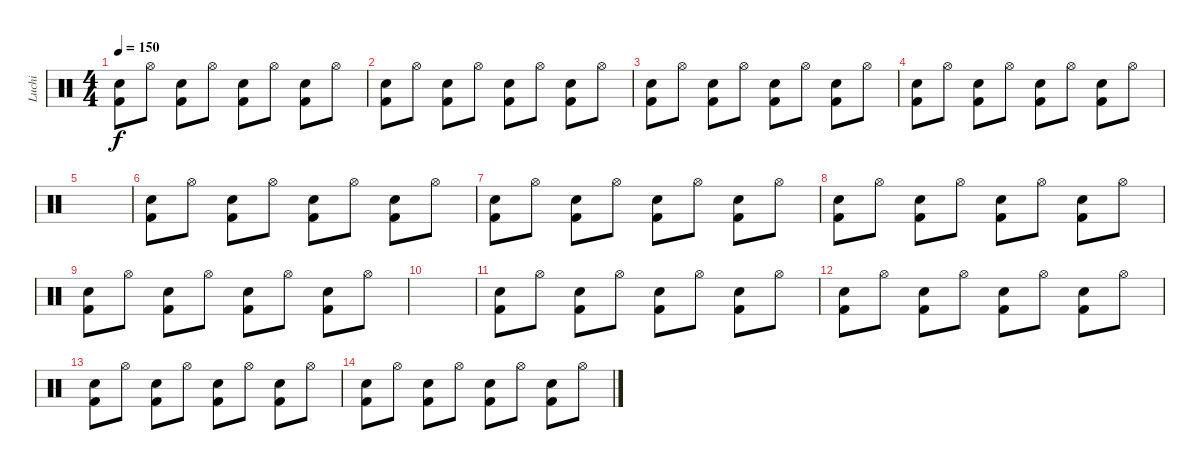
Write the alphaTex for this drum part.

\track ("Luchi" "Luchi") {instrument percussion}
\staff {score}
\articulation defaults
\ts (4 4)
\tempo 150
\clef neutral
\ks c
("Snare (hit) 2" "Kick (hit) 2").8{dy f} "Hi-Hat (open)".8 ("Snare (hit) 2" "Kick (hit) 2").8 "Hi-Hat (open)".8 ("Snare (hit) 2" "Kick (hit) 2").8 "Hi-Hat (open)".8 ("Snare (hit) 2" "Kick (hit) 2").8 "Hi-Hat (open)".8 |
("Snare (hit) 2" "Kick (hit) 2").8 "Hi-Hat (open)".8 ("Snare (hit) 2" "Kick (hit) 2").8 "Hi-Hat (open)".8 ("Snare (hit) 2" "Kick (hit) 2").8 "Hi-Hat (open)".8 ("Snare (hit) 2" "Kick (hit) 2").8 "Hi-Hat (open)".8 |
("Snare (hit) 2" "Kick (hit) 2").8 "Hi-Hat (open)".8 ("Snare (hit) 2" "Kick (hit) 2").8 "Hi-Hat (open)".8 ("Snare (hit) 2" "Kick (hit) 2").8 "Hi-Hat (open)".8 ("Snare (hit) 2" "Kick (hit) 2").8 "Hi-Hat (open)".8 |
("Snare (hit) 2" "Kick (hit) 2").8 "Hi-Hat (open)".8 ("Snare (hit) 2" "Kick (hit) 2").8 "Hi-Hat (open)".8 ("Snare (hit) 2" "Kick (hit) 2").8 "Hi-Hat (open)".8 ("Snare (hit) 2" "Kick (hit) 2").8 "Hi-Hat (open)".8 |
|
("Snare (hit) 2" "Kick (hit) 2").8 "Hi-Hat (open)".8 ("Snare (hit) 2" "Kick (hit) 2").8 "Hi-Hat (open)".8 ("Snare (hit) 2" "Kick (hit) 2").8 "Hi-Hat (open)".8 ("Snare (hit) 2" "Kick (hit) 2").8 "Hi-Hat (open)".8 |
("Snare (hit) 2" "Kick (hit) 2").8 "Hi-Hat (open)".8 ("Snare (hit) 2" "Kick (hit) 2").8 "Hi-Hat (open)".8 ("Snare (hit) 2" "Kick (hit) 2").8 "Hi-Hat (open)".8 ("Snare (hit) 2" "Kick (hit) 2").8 "Hi-Hat (open)".8 |
("Snare (hit) 2" "Kick (hit) 2").8 "Hi-Hat (open)".8 ("Snare (hit) 2" "Kick (hit) 2").8 "Hi-Hat (open)".8 ("Snare (hit) 2" "Kick (hit) 2").8 "Hi-Hat (open)".8 ("Snare (hit) 2" "Kick (hit) 2").8 "Hi-Hat (open)".8 |
("Snare (hit) 2" "Kick (hit) 2").8 "Hi-Hat (open)".8 ("Snare (hit) 2" "Kick (hit) 2").8 "Hi-Hat (open)".8 ("Snare (hit) 2" "Kick (hit) 2").8 "Hi-Hat (open)".8 ("Snare (hit) 2" "Kick (hit) 2").8 "Hi-Hat (open)".8 |
|
("Snare (hit) 2" "Kick (hit) 2").8 "Hi-Hat (open)".8 ("Snare (hit) 2" "Kick (hit) 2").8 "Hi-Hat (open)".8 ("Snare (hit) 2" "Kick (hit) 2").8 "Hi-Hat (open)".8 ("Snare (hit) 2" "Kick (hit) 2").8 "Hi-Hat (open)".8 |
("Snare (hit) 2" "Kick (hit) 2").8 "Hi-Hat (open)".8 ("Snare (hit) 2" "Kick (hit) 2").8 "Hi-Hat (open)".8 ("Snare (hit) 2" "Kick (hit) 2").8 "Hi-Hat (open)".8 ("Snare (hit) 2" "Kick (hit) 2").8 "Hi-Hat (open)".8 |
("Snare (hit) 2" "Kick (hit) 2").8 "Hi-Hat (open)".8 ("Snare (hit) 2" "Kick (hit) 2").8 "Hi-Hat (open)".8 ("Snare (hit) 2" "Kick (hit) 2").8 "Hi-Hat (open)".8 ("Snare (hit) 2" "Kick (hit) 2").8 "Hi-Hat (open)".8 |
("Snare (hit) 2" "Kick (hit) 2").8 "Hi-Hat (open)".8 ("Snare (hit) 2" "Kick (hit) 2").8 "Hi-Hat (open)".8 ("Snare (hit) 2" "Kick (hit) 2").8 "Hi-Hat (open)".8 ("Snare (hit) 2" "Kick (hit) 2").8 "Hi-Hat (open)".8
